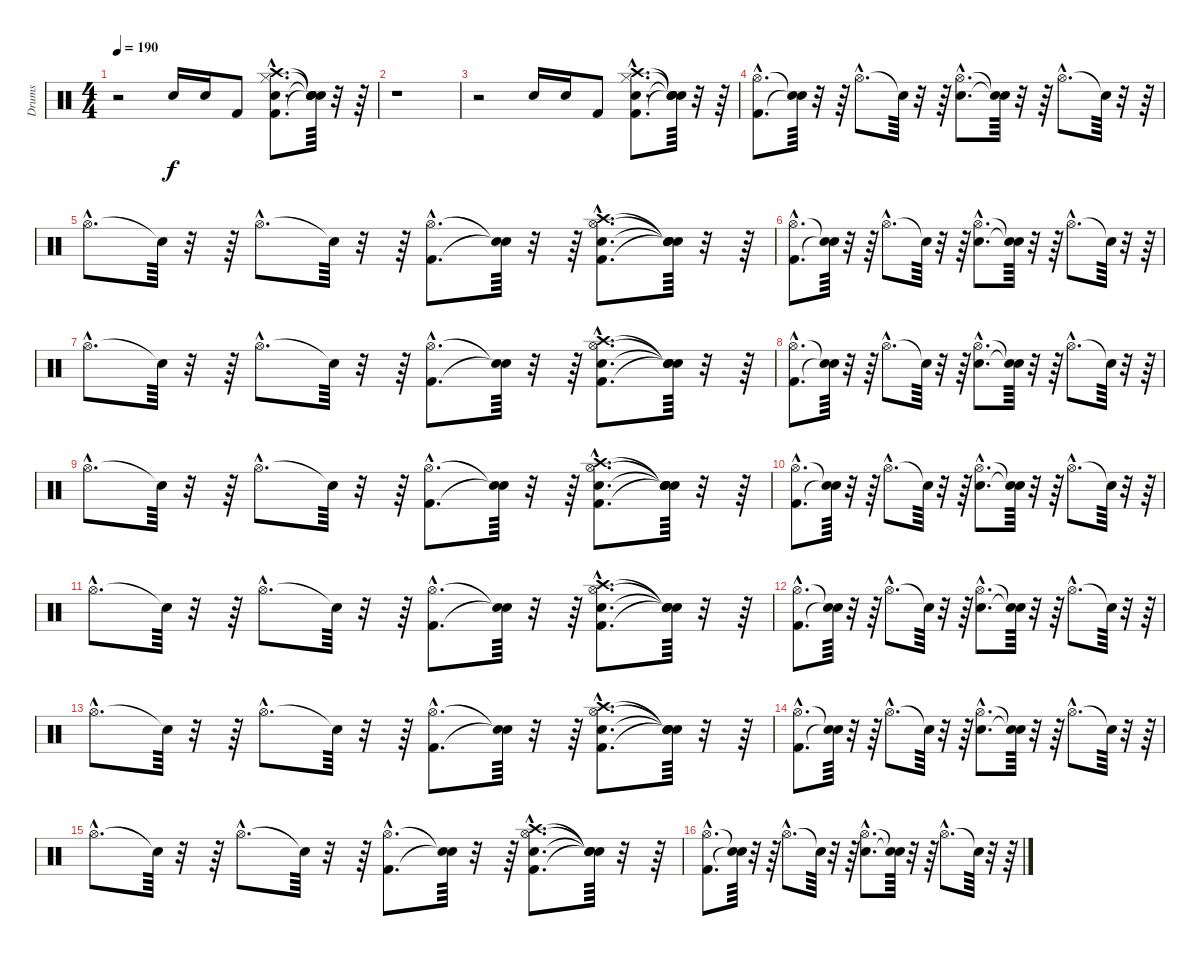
\track ("Drums" "Drums") {instrument percussion}
\staff {score}
\articulation defaults
\ts (4 4)
\tempo 190
\clef neutral
\ks c
r.2{dy f} "Snare (hit) 2".16 "Snare (hit) 2".16 "Kick (hit) 2".8 ("Kick (hit) 2"{hac} "Snare (hit) 2"{hac} "Hi-Hat (closed)"{hac} "Crash high (hit)"{hac}).8{d} ("Snare (hit)"{t} "Snare (hit)"{t} "Snare (hit)"{t} "Snare (hit)"{t}).64 r.32 r.64 |
r.1 |
r.2 "Snare (hit) 2".16 "Snare (hit) 2".16 "Kick (hit) 2".8 ("Kick (hit) 2"{hac} "Snare (hit) 2"{hac} "Hi-Hat (closed)"{hac} "Crash high (hit)"{hac}).8{d} ("Snare (hit)"{t} "Snare (hit)"{t} "Snare (hit)"{t} "Snare (hit)"{t}).64 r.32 r.64 |
("Kick (hit) 2"{hac} "Hi-Hat (open)"{hac}).8{d} ("Snare (hit)"{t} "Snare (hit)"{t}).64 r.32 r.64 "Hi-Hat (open)"{hac}.8{d} "Snare (hit)"{t}.64 r.32 r.64 ("Snare (hit) 2"{hac} "Hi-Hat (open)"{hac}).8{d} ("Snare (hit)"{t} "Snare (hit)"{t}).64 r.32 r.64 "Hi-Hat (open)"{hac}.8{d} "Snare (hit)"{t}.64 r.32 r.64 |
"Hi-Hat (open)"{hac}.8{d} "Snare (hit)"{t}.64 r.32 r.64 "Hi-Hat (open)"{hac}.8{d} "Snare (hit)"{t}.64 r.32 r.64 ("Kick (hit) 2"{hac} "Hi-Hat (open)"{hac}).8{d} ("Snare (hit)"{t} "Snare (hit)"{t}).64 r.32 r.64 ("Kick (hit) 2"{hac} "Snare (hit) 2"{hac} "Hi-Hat (open)"{hac} "Crash high (hit)"{hac}).8{d} ("Snare (hit)"{t} "Snare (hit)"{t} "Snare (hit)"{t} "Snare (hit)"{t}).64 r.32 r.64 |
("Kick (hit) 2"{hac} "Hi-Hat (open)"{hac}).8{d} ("Snare (hit)"{t} "Snare (hit)"{t}).64 r.32 r.64 "Hi-Hat (open)"{hac}.8{d} "Snare (hit)"{t}.64 r.32 r.64 ("Snare (hit) 2"{hac} "Hi-Hat (open)"{hac}).8{d} ("Snare (hit)"{t} "Snare (hit)"{t}).64 r.32 r.64 "Hi-Hat (open)"{hac}.8{d} "Snare (hit)"{t}.64 r.32 r.64 |
"Hi-Hat (open)"{hac}.8{d} "Snare (hit)"{t}.64 r.32 r.64 "Hi-Hat (open)"{hac}.8{d} "Snare (hit)"{t}.64 r.32 r.64 ("Kick (hit) 2"{hac} "Hi-Hat (open)"{hac}).8{d} ("Snare (hit)"{t} "Snare (hit)"{t}).64 r.32 r.64 ("Kick (hit) 2"{hac} "Snare (hit) 2"{hac} "Hi-Hat (open)"{hac} "Crash high (hit)"{hac}).8{d} ("Snare (hit)"{t} "Snare (hit)"{t} "Snare (hit)"{t} "Snare (hit)"{t}).64 r.32 r.64 |
("Kick (hit) 2"{hac} "Hi-Hat (open)"{hac}).8{d} ("Snare (hit)"{t} "Snare (hit)"{t}).64 r.32 r.64 "Hi-Hat (open)"{hac}.8{d} "Snare (hit)"{t}.64 r.32 r.64 ("Snare (hit) 2"{hac} "Hi-Hat (open)"{hac}).8{d} ("Snare (hit)"{t} "Snare (hit)"{t}).64 r.32 r.64 "Hi-Hat (open)"{hac}.8{d} "Snare (hit)"{t}.64 r.32 r.64 |
"Hi-Hat (open)"{hac}.8{d} "Snare (hit)"{t}.64 r.32 r.64 "Hi-Hat (open)"{hac}.8{d} "Snare (hit)"{t}.64 r.32 r.64 ("Kick (hit) 2"{hac} "Hi-Hat (open)"{hac}).8{d} ("Snare (hit)"{t} "Snare (hit)"{t}).64 r.32 r.64 ("Kick (hit) 2"{hac} "Snare (hit) 2"{hac} "Hi-Hat (open)"{hac} "Crash high (hit)"{hac}).8{d} ("Snare (hit)"{t} "Snare (hit)"{t} "Snare (hit)"{t} "Snare (hit)"{t}).64 r.32 r.64 |
("Kick (hit) 2"{hac} "Hi-Hat (open)"{hac}).8{d} ("Snare (hit)"{t} "Snare (hit)"{t}).64 r.32 r.64 "Hi-Hat (open)"{hac}.8{d} "Snare (hit)"{t}.64 r.32 r.64 ("Snare (hit) 2"{hac} "Hi-Hat (open)"{hac}).8{d} ("Snare (hit)"{t} "Snare (hit)"{t}).64 r.32 r.64 "Hi-Hat (open)"{hac}.8{d} "Snare (hit)"{t}.64 r.32 r.64 |
"Hi-Hat (open)"{hac}.8{d} "Snare (hit)"{t}.64 r.32 r.64 "Hi-Hat (open)"{hac}.8{d} "Snare (hit)"{t}.64 r.32 r.64 ("Kick (hit) 2"{hac} "Hi-Hat (open)"{hac}).8{d} ("Snare (hit)"{t} "Snare (hit)"{t}).64 r.32 r.64 ("Kick (hit) 2"{hac} "Snare (hit) 2"{hac} "Hi-Hat (open)"{hac} "Crash high (hit)"{hac}).8{d} ("Snare (hit)"{t} "Snare (hit)"{t} "Snare (hit)"{t} "Snare (hit)"{t}).64 r.32 r.64 |
("Kick (hit) 2"{hac} "Hi-Hat (open)"{hac}).8{d} ("Snare (hit)"{t} "Snare (hit)"{t}).64 r.32 r.64 "Hi-Hat (open)"{hac}.8{d} "Snare (hit)"{t}.64 r.32 r.64 ("Snare (hit) 2"{hac} "Hi-Hat (open)"{hac}).8{d} ("Snare (hit)"{t} "Snare (hit)"{t}).64 r.32 r.64 "Hi-Hat (open)"{hac}.8{d} "Snare (hit)"{t}.64 r.32 r.64 |
"Hi-Hat (open)"{hac}.8{d} "Snare (hit)"{t}.64 r.32 r.64 "Hi-Hat (open)"{hac}.8{d} "Snare (hit)"{t}.64 r.32 r.64 ("Kick (hit) 2"{hac} "Hi-Hat (open)"{hac}).8{d} ("Snare (hit)"{t} "Snare (hit)"{t}).64 r.32 r.64 ("Kick (hit) 2"{hac} "Snare (hit) 2"{hac} "Hi-Hat (open)"{hac} "Crash high (hit)"{hac}).8{d} ("Snare (hit)"{t} "Snare (hit)"{t} "Snare (hit)"{t} "Snare (hit)"{t}).64 r.32 r.64 |
("Kick (hit) 2"{hac} "Hi-Hat (open)"{hac}).8{d} ("Snare (hit)"{t} "Snare (hit)"{t}).64 r.32 r.64 "Hi-Hat (open)"{hac}.8{d} "Snare (hit)"{t}.64 r.32 r.64 ("Snare (hit) 2"{hac} "Hi-Hat (open)"{hac}).8{d} ("Snare (hit)"{t} "Snare (hit)"{t}).64 r.32 r.64 "Hi-Hat (open)"{hac}.8{d} "Snare (hit)"{t}.64 r.32 r.64 |
"Hi-Hat (open)"{hac}.8{d} "Snare (hit)"{t}.64 r.32 r.64 "Hi-Hat (open)"{hac}.8{d} "Snare (hit)"{t}.64 r.32 r.64 ("Kick (hit) 2"{hac} "Hi-Hat (open)"{hac}).8{d} ("Snare (hit)"{t} "Snare (hit)"{t}).64 r.32 r.64 ("Kick (hit) 2"{hac} "Snare (hit) 2"{hac} "Hi-Hat (open)"{hac} "Crash high (hit)"{hac}).8{d} ("Snare (hit)"{t} "Snare (hit)"{t} "Snare (hit)"{t} "Snare (hit)"{t}).64 r.32 r.64 |
("Kick (hit) 2"{hac} "Hi-Hat (open)"{hac}).8{d} ("Snare (hit)"{t} "Snare (hit)"{t}).64 r.32 r.64 "Hi-Hat (open)"{hac}.8{d} "Snare (hit)"{t}.64 r.32 r.64 ("Snare (hit) 2"{hac} "Hi-Hat (open)"{hac}).8{d} ("Snare (hit)"{t} "Snare (hit)"{t}).64 r.32 r.64 "Hi-Hat (open)"{hac}.8{d} "Snare (hit)"{t}.64 r.32 r.64
